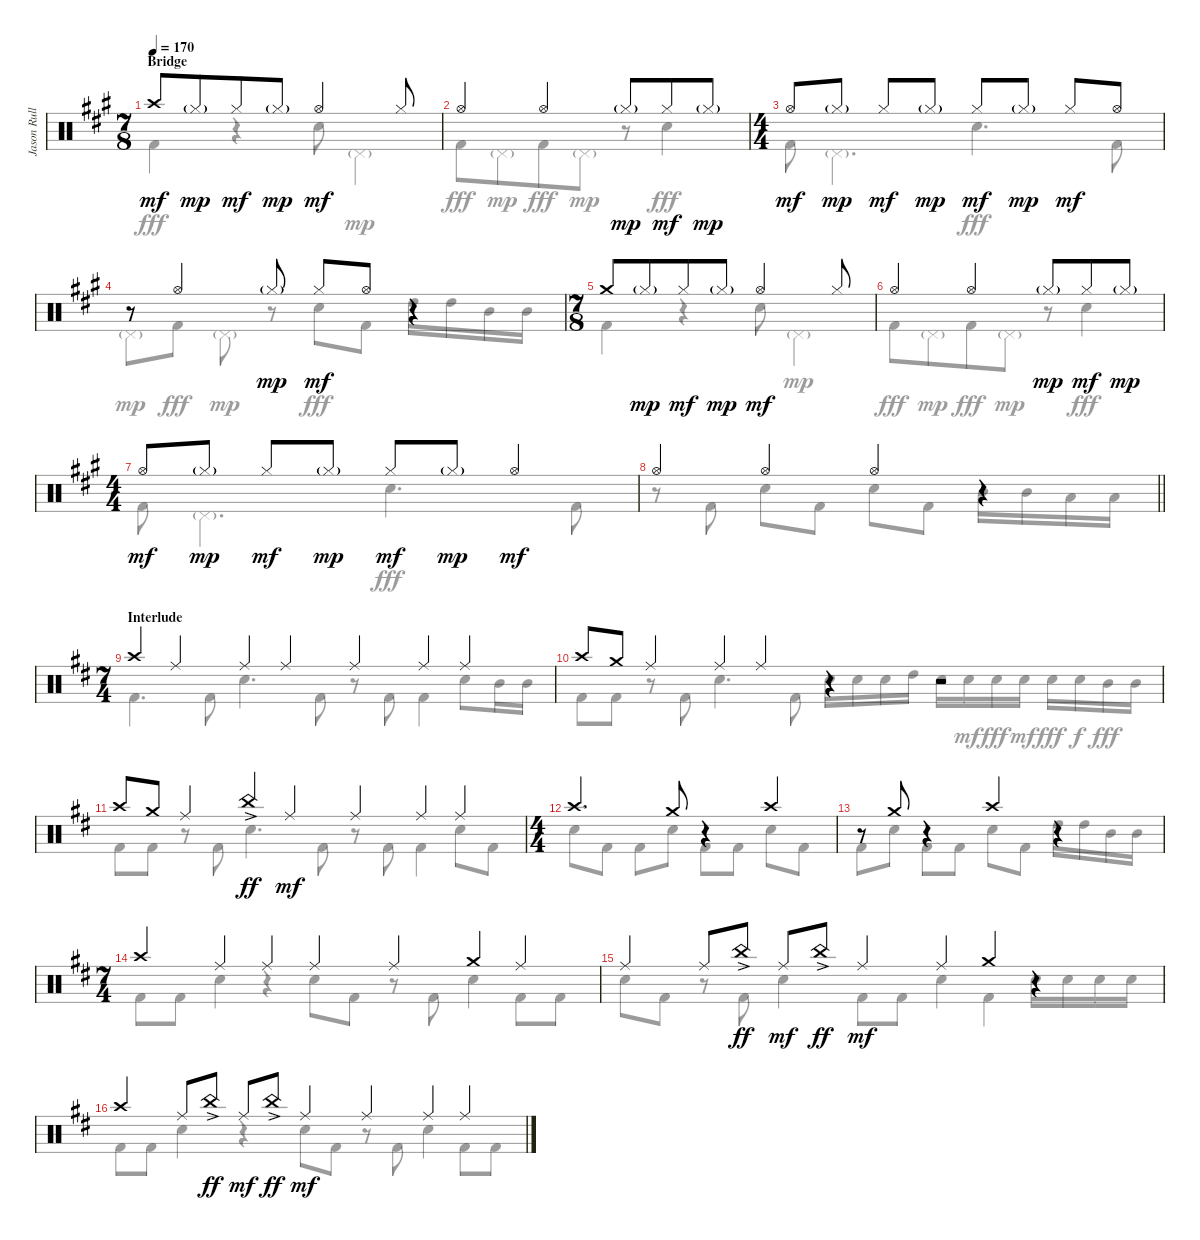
\track ("Jason Rullo Drums" "Jason Rull") {instrument percussion}
\staff {score}
\articulation defaults
\voice
\ts (7 8)
\section ("" "Bridge")
\tempo 170
\clef neutral
\ks f#minor "Crash high (hit)".8{dy mf} "Hi-Hat (closed)"{g}.8{dy mp} "Hi-Hat (closed)".8{dy mf} "Hi-Hat (closed)"{g}.8{dy mp} "Hi-Hat (open)".4{dy mf} "Hi-Hat (closed)".8
|
"Hi-Hat (open)".4 "Hi-Hat (open)".4 "Hi-Hat (closed)"{g}.8{dy mp} "Hi-Hat (closed)".8{dy mf} "Hi-Hat (closed)"{g}.8{dy mp} |
\ts (4 4)
"Hi-Hat (open)".8{dy mf} "Hi-Hat (closed)"{g}.8{dy mp} "Hi-Hat (closed)".8{dy mf} "Hi-Hat (closed)"{g}.8{dy mp} "Hi-Hat (closed)".8{dy mf} "Hi-Hat (closed)"{g}.8{dy mp} "Hi-Hat (closed)".8{dy mf} "Hi-Hat (open)".8 |
r.8 "Hi-Hat (open)".4 "Hi-Hat (closed)"{g}.8{dy mp} "Hi-Hat (closed)".8{dy mf} "Hi-Hat (open)".8 r.4 |
\ts (7 8)
"Crash medium (hit)".8 "Hi-Hat (closed)"{g}.8{dy mp} "Hi-Hat (closed)".8{dy mf} "Hi-Hat (closed)"{g}.8{dy mp} "Hi-Hat (open)".4{dy mf} "Hi-Hat (closed)".8 |
"Hi-Hat (open)".4 "Hi-Hat (open)".4 "Hi-Hat (closed)"{g}.8{dy mp} "Hi-Hat (closed)".8{dy mf} "Hi-Hat (closed)"{g}.8{dy mp} |
\ts (4 4)
"Hi-Hat (open)".8{dy mf} "Hi-Hat (closed)"{g}.8{dy mp} "Hi-Hat (closed)".8{dy mf} "Hi-Hat (closed)"{g}.8{dy mp} "Hi-Hat (closed)".8{dy mf} "Hi-Hat (closed)"{g}.8{dy mp} "Hi-Hat (open)".4{dy mf} |
\barLineRight lightlight "Hi-Hat (open)".4 "Hi-Hat (open)".4 "Hi-Hat (open)".4
r.4 |
\ts (7 4)
\section ("" "Interlude")
\ks bminor "Crash high (hit)".4 "Ride (middle)".4 "Ride (middle)".4 "Ride (middle)".4 "Ride (middle)".4 "Ride (middle)".4 "Ride (middle)".4
|
"Crash high (hit)".8 "Crash medium (hit)".8 "Ride (middle)".4 "Ride (middle)".4 "Ride (middle)".4 r.4 r.2 |
"Crash high (hit)".8 "Crash medium (hit)".8 "Ride (middle)".4 "China (hit)"{ac}.4{dy ff} "Ride (middle)".4{dy mf} "Ride (middle)".4 "Ride (middle)".4 "Ride (middle)".4 |
\ts (4 4)
"Crash high (hit)".4{d} "Crash medium (hit)".8 r.4 "Crash high (hit)".4 |
r.8 "Crash medium (hit)".8 r.4 "Crash high (hit)".4 r.4 |
\ts (7 4)
"Crash high (hit)".4 "Ride (middle)".4 "Ride (middle)".4 "Ride (middle)".4 "Ride (middle)".4 "Crash medium (hit)".4 "Ride (middle)".4 |
"Ride (middle)".4 "Ride (middle)".8 "China (hit)"{ac}.8{dy ff} "Ride (middle)".8{dy mf} "China (hit)"{ac}.8{dy ff} "Ride (middle)".4{dy mf} "Ride (middle)".4 "Crash medium (hit)".4 r.4 |
"Crash high (hit)".4 "Ride (middle)".8 "China (hit)"{ac}.8{dy ff} "Ride (middle)".8{dy mf} "China (hit)"{ac}.8{dy ff} "Ride (middle)".4{dy mf} "Ride (middle)".4 "Ride (middle)".4 "Ride (middle)".4
\voice
\clef neutral
\ottava regular
\simile none
\ks f#minor "Kick (hit) 2".4{dy fff}
r.4 "Electric Snare (hit)".8 "Pedal Hi-Hat (hit)"{g}.4{dy mp} |
"Kick (hit) 2".8{dy fff} "Pedal Hi-Hat (hit)"{g}.8{dy mp} "Kick (hit) 2".8{dy fff} "Pedal Hi-Hat (hit)"{g}.8{dy mp} r.8 "Electric Snare (hit)".4{dy fff} |
"Kick (hit) 2".8 "Pedal Hi-Hat (hit)"{g}.4{d dy mp} "Electric Snare (hit)".4{d dy fff} "Kick (hit) 2".8 |
"Pedal Hi-Hat (hit)"{g}.8{dy mp} "Kick (hit) 2".8{dy fff} "Pedal Hi-Hat (hit)"{g}.8{dy mp} r.8 "Electric Snare (hit)".8{dy fff} "Kick (hit) 2".8 "High Tom (hit)".16 "High Tom (hit)".16 "Mid Tom (hit)".16 "Mid Tom (hit)".16 |
"Kick (hit) 2".4 r.4 "Electric Snare (hit)".8 "Pedal Hi-Hat (hit)"{g}.4{dy mp} |
"Kick (hit) 2".8{dy fff} "Pedal Hi-Hat (hit)"{g}.8{dy mp} "Kick (hit) 2".8{dy fff} "Pedal Hi-Hat (hit)"{g}.8{dy mp} r.8 "Electric Snare (hit)".4{dy fff} |
"Kick (hit) 2".8 "Pedal Hi-Hat (hit)"{g}.4{d dy mp} "Electric Snare (hit)".4{d dy fff} "Kick (hit) 2".8 |
\barLineRight lightlight
r.8 "Kick (hit) 2".8 "Electric Snare (hit)".8 "Kick (hit) 2".8 "Electric Snare (hit)".8 "Kick (hit) 2".8 "Mid Tom (hit)".16 "Mid Tom (hit)".16 "Low Tom (hit)".16 "Low Tom (hit)".16 |
\ks bminor "Kick (hit) 2".4{d} "Kick (hit) 2".8 "Electric Snare (hit)".4{d} "Kick (hit) 2".8
r.8 "Kick (hit) 2".8 "Kick (hit) 2".4 "Electric Snare (hit)".8 "Mid Tom (hit)".16 "Mid Tom (hit)".16 |
"Kick (hit) 2".8 "Kick (hit) 2".8 r.8 "Kick (hit) 2".8 "Electric Snare (hit)".4{d} "Kick (hit) 2".8 "Electric Snare (hit)".16 "Electric Snare (hit)".16 "Electric Snare (hit)".16 "High Tom (hit)".16 "Electric Snare (hit)".16 "Electric Snare (hit)".16{dy mf} "Electric Snare (hit)".16{dy fff} "Electric Snare (hit)".16{dy mf} "Electric Snare (hit)".16{dy fff} "Electric Snare (hit)".16{dy f} "Mid Tom (hit)".16{dy fff} "Mid Tom (hit)".16 |
"Kick (hit) 2".8 "Kick (hit) 2".8 r.8 "Kick (hit) 2".8 "Electric Snare (hit)".4{d} "Kick (hit) 2".8 r.8 "Kick (hit) 2".8 "Kick (hit) 2".4 "Electric Snare (hit)".8 "Kick (hit) 2".8 |
"Electric Snare (hit)".8 "Kick (hit) 2".8 "Kick (hit) 2".8 "Electric Snare (hit)".8 "Kick (hit) 2".8 "Kick (hit) 2".8 "Electric Snare (hit)".8 "Kick (hit) 2".8 |
"Kick (hit) 2".8 "Electric Snare (hit)".8 "Kick (hit) 2".8 "Kick (hit) 2".8 "Electric Snare (hit)".8 "Kick (hit) 2".8 "High Tom (hit)".16 "High Tom (hit)".16 "Mid Tom (hit)".16 "Mid Tom (hit)".16 |
"Kick (hit) 2".8 "Kick (hit) 2".8 "Electric Snare (hit)".4 r.4 "Electric Snare (hit)".8 "Kick (hit) 2".8 r.8 "Kick (hit) 2".8 "Electric Snare (hit)".4 "Kick (hit) 2".8 "Kick (hit) 2".8 |
"Electric Snare (hit)".8 "Kick (hit) 2".8 r.8 "Kick (hit) 2".8 "Electric Snare (hit)".4 "Kick (hit) 2".8 "Kick (hit) 2".8 "Electric Snare (hit)".4 "Kick (hit) 2".4 "Electric Snare (hit)".16 "Electric Snare (hit)".16 "Electric Snare (hit)".16 "Electric Snare (hit)".16 |
"Kick (hit) 2".8 "Kick (hit) 2".8 "Electric Snare (hit)".4 r.4 "Electric Snare (hit)".8 "Kick (hit) 2".8 r.8 "Kick (hit) 2".8 "Electric Snare (hit)".4 "Kick (hit) 2".8 "Kick (hit) 2".8
